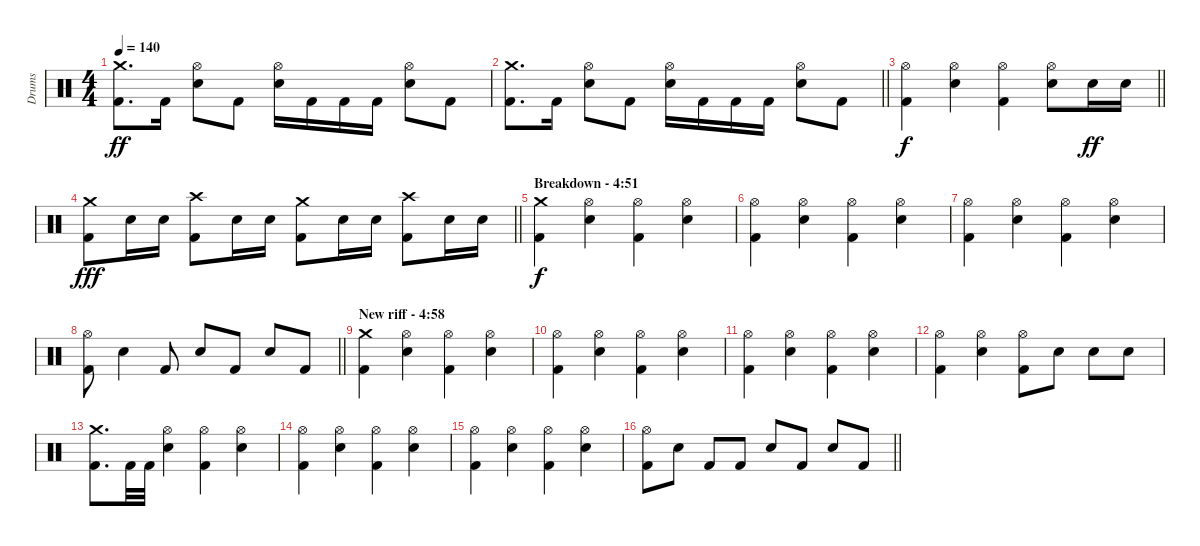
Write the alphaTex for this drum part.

\track ("Drums" "Drums") {instrument percussion}
\staff {score}
\articulation defaults
\ts (4 4)
\tempo 140
\clef neutral
\ks c
("Crash medium (hit)" "Kick (hit) 2").8{d dy ff} "Kick (hit) 2".16 ("Hi-Hat (open)" "Electric Snare (hit)").8 "Kick (hit) 2".8 ("Hi-Hat (open)" "Electric Snare (hit)").16 "Kick (hit) 2".16 "Kick (hit) 2".16 "Kick (hit) 2".16 ("Hi-Hat (open)" "Electric Snare (hit)").8 "Kick (hit) 2".8 |
\barLineRight lightlight
("Crash medium (hit)" "Kick (hit) 2").8{d} "Kick (hit) 2".16 ("Hi-Hat (open)" "Electric Snare (hit)").8 "Kick (hit) 2".8 ("Hi-Hat (open)" "Electric Snare (hit)").16 "Kick (hit) 2".16 "Kick (hit) 2".16 "Kick (hit) 2".16 ("Hi-Hat (open)" "Electric Snare (hit)").8 "Kick (hit) 2".8 |
\barLineRight lightlight
("Hi-Hat (open)" "Kick (hit) 2").4{dy f} ("Hi-Hat (open)" "Electric Snare (hit)").4 ("Hi-Hat (open)" "Kick (hit) 2").4 ("Hi-Hat (open)" "Electric Snare (hit)").8 "Electric Snare (hit)".16{dy ff} "Electric Snare (hit)".16 |
\barLineRight lightlight
("Crash medium (hit)" "Kick (hit) 2").8{dy fff} "Electric Snare (hit)".16 "Electric Snare (hit)".16 ("Crash high (hit)" "Kick (hit) 2").8 "Electric Snare (hit)".16 "Electric Snare (hit)".16 ("Crash medium (hit)" "Kick (hit) 2").8 "Electric Snare (hit)".16 "Electric Snare (hit)".16 ("Crash high (hit)" "Kick (hit) 2").8 "Electric Snare (hit)".16 "Electric Snare (hit)".16 |
\section ("" "Breakdown - 4:51")
("Crash medium (hit)" "Kick (hit) 2").4{dy f} ("Hi-Hat (open)" "Electric Snare (hit)").4 ("Hi-Hat (open)" "Kick (hit) 2").4 ("Hi-Hat (open)" "Electric Snare (hit)").4 |
("Hi-Hat (open)" "Kick (hit) 2").4 ("Hi-Hat (open)" "Electric Snare (hit)").4 ("Hi-Hat (open)" "Kick (hit) 2").4 ("Hi-Hat (open)" "Electric Snare (hit)").4 |
("Hi-Hat (open)" "Kick (hit) 2").4 ("Hi-Hat (open)" "Electric Snare (hit)").4 ("Hi-Hat (open)" "Kick (hit) 2").4 ("Hi-Hat (open)" "Electric Snare (hit)").4 |
\barLineRight lightlight
("Hi-Hat (open)" "Kick (hit) 2").8 "Electric Snare (hit)".4 "Kick (hit) 2".8 "Electric Snare (hit)".8 "Kick (hit) 2".8 "Electric Snare (hit)".8 "Kick (hit) 2".8 |
\section ("" "New riff - 4:58")
("Crash medium (hit)" "Kick (hit) 2").4 ("Hi-Hat (open)" "Electric Snare (hit)").4 ("Hi-Hat (open)" "Kick (hit) 2").4 ("Hi-Hat (open)" "Electric Snare (hit)").4 |
("Hi-Hat (open)" "Kick (hit) 2").4 ("Hi-Hat (open)" "Electric Snare (hit)").4 ("Hi-Hat (open)" "Kick (hit) 2").4 ("Hi-Hat (open)" "Electric Snare (hit)").4 |
("Hi-Hat (open)" "Kick (hit) 2").4 ("Hi-Hat (open)" "Electric Snare (hit)").4 ("Hi-Hat (open)" "Kick (hit) 2").4 ("Hi-Hat (open)" "Electric Snare (hit)").4 |
("Hi-Hat (open)" "Kick (hit) 2").4 ("Hi-Hat (open)" "Electric Snare (hit)").4 ("Hi-Hat (open)" "Kick (hit) 2").8 "Electric Snare (hit)".8 "Electric Snare (hit)".8 "Electric Snare (hit)".8 |
("Crash medium (hit)" "Kick (hit) 2").8{d} "Kick (hit) 2".32 "Kick (hit) 2".32 ("Hi-Hat (open)" "Electric Snare (hit)").4 ("Hi-Hat (open)" "Kick (hit) 2").4 ("Hi-Hat (open)" "Electric Snare (hit)").4 |
("Hi-Hat (open)" "Kick (hit) 2").4 ("Hi-Hat (open)" "Electric Snare (hit)").4 ("Hi-Hat (open)" "Kick (hit) 2").4 ("Hi-Hat (open)" "Electric Snare (hit)").4 |
("Hi-Hat (open)" "Kick (hit) 2").4 ("Hi-Hat (open)" "Electric Snare (hit)").4 ("Hi-Hat (open)" "Kick (hit) 2").4 ("Hi-Hat (open)" "Electric Snare (hit)").4 |
\barLineRight lightlight
("Hi-Hat (open)" "Kick (hit) 2").8 "Electric Snare (hit)".8 "Kick (hit) 2".8 "Kick (hit) 2".8 "Electric Snare (hit)".8 "Kick (hit) 2".8 "Electric Snare (hit)".8 "Kick (hit) 2".8
